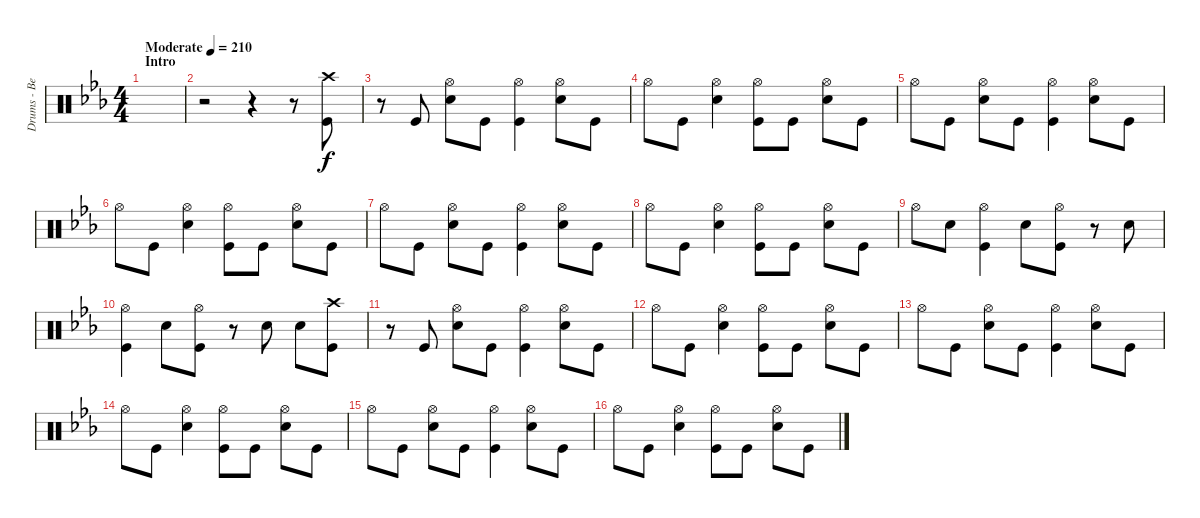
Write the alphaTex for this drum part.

\track ("Drums - Ben Johnston" "Drums - Be") {instrument percussion}
\staff {score}
\articulation defaults
\ts (4 4)
\section ("" "Intro")
\tempo (210 "Moderate")
\clef neutral
\ks cminor
|
r.2 r.4 r.8 ("Crash high (hit)" "Kick (hit)").8 |
r.8 "Kick (hit)".8 ("Hi-Hat (open)" "Snare (hit) 2").8 "Kick (hit)".8 ("Hi-Hat (open)" "Kick (hit)").4 ("Hi-Hat (open)" "Snare (hit) 2").8 "Kick (hit)".8 |
"Hi-Hat (open)".8 "Kick (hit)".8 ("Hi-Hat (open)" "Snare (hit) 2").4 ("Hi-Hat (open)" "Kick (hit)").8 "Kick (hit)".8 ("Hi-Hat (open)" "Snare (hit) 2").8 "Kick (hit)".8 |
"Hi-Hat (open)".8 "Kick (hit)".8 ("Hi-Hat (open)" "Snare (hit) 2").8 "Kick (hit)".8 ("Hi-Hat (open)" "Kick (hit)").4 ("Hi-Hat (open)" "Snare (hit) 2").8 "Kick (hit)".8 |
"Hi-Hat (open)".8 "Kick (hit)".8 ("Hi-Hat (open)" "Snare (hit) 2").4 ("Hi-Hat (open)" "Kick (hit)").8 "Kick (hit)".8 ("Hi-Hat (open)" "Snare (hit) 2").8 "Kick (hit)".8 |
"Hi-Hat (open)".8 "Kick (hit)".8 ("Hi-Hat (open)" "Snare (hit) 2").8 "Kick (hit)".8 ("Hi-Hat (open)" "Kick (hit)").4 ("Hi-Hat (open)" "Snare (hit) 2").8 "Kick (hit)".8 |
"Hi-Hat (open)".8 "Kick (hit)".8 ("Hi-Hat (open)" "Snare (hit) 2").4 ("Hi-Hat (open)" "Kick (hit)").8 "Kick (hit)".8 ("Hi-Hat (open)" "Snare (hit) 2").8 "Kick (hit)".8 |
"Hi-Hat (open)".8 "Snare (hit) 2".8 ("Hi-Hat (open)" "Kick (hit)").4 "Snare (hit) 2".8 ("Hi-Hat (open)" "Kick (hit)").8 r.8 "Snare (hit) 2".8 |
("Hi-Hat (open)" "Kick (hit)").4 "Snare (hit) 2".8 ("Hi-Hat (open)" "Kick (hit)").8 r.8 "Snare (hit) 2".8 "Snare (hit) 2".8 ("Crash high (hit)" "Kick (hit)").8 |
r.8 "Kick (hit)".8 ("Hi-Hat (open)" "Snare (hit) 2").8 "Kick (hit)".8 ("Hi-Hat (open)" "Kick (hit)").4 ("Hi-Hat (open)" "Snare (hit) 2").8 "Kick (hit)".8 |
"Hi-Hat (open)".8 "Kick (hit)".8 ("Hi-Hat (open)" "Snare (hit) 2").4 ("Hi-Hat (open)" "Kick (hit)").8 "Kick (hit)".8 ("Hi-Hat (open)" "Snare (hit) 2").8 "Kick (hit)".8 |
"Hi-Hat (open)".8 "Kick (hit)".8 ("Hi-Hat (open)" "Snare (hit) 2").8 "Kick (hit)".8 ("Hi-Hat (open)" "Kick (hit)").4 ("Hi-Hat (open)" "Snare (hit) 2").8 "Kick (hit)".8 |
"Hi-Hat (open)".8 "Kick (hit)".8 ("Hi-Hat (open)" "Snare (hit) 2").4 ("Hi-Hat (open)" "Kick (hit)").8 "Kick (hit)".8 ("Hi-Hat (open)" "Snare (hit) 2").8 "Kick (hit)".8 |
"Hi-Hat (open)".8 "Kick (hit)".8 ("Hi-Hat (open)" "Snare (hit) 2").8 "Kick (hit)".8 ("Hi-Hat (open)" "Kick (hit)").4 ("Hi-Hat (open)" "Snare (hit) 2").8 "Kick (hit)".8 |
"Hi-Hat (open)".8 "Kick (hit)".8 ("Hi-Hat (open)" "Snare (hit) 2").4 ("Hi-Hat (open)" "Kick (hit)").8 "Kick (hit)".8 ("Hi-Hat (open)" "Snare (hit) 2").8 "Kick (hit)".8
